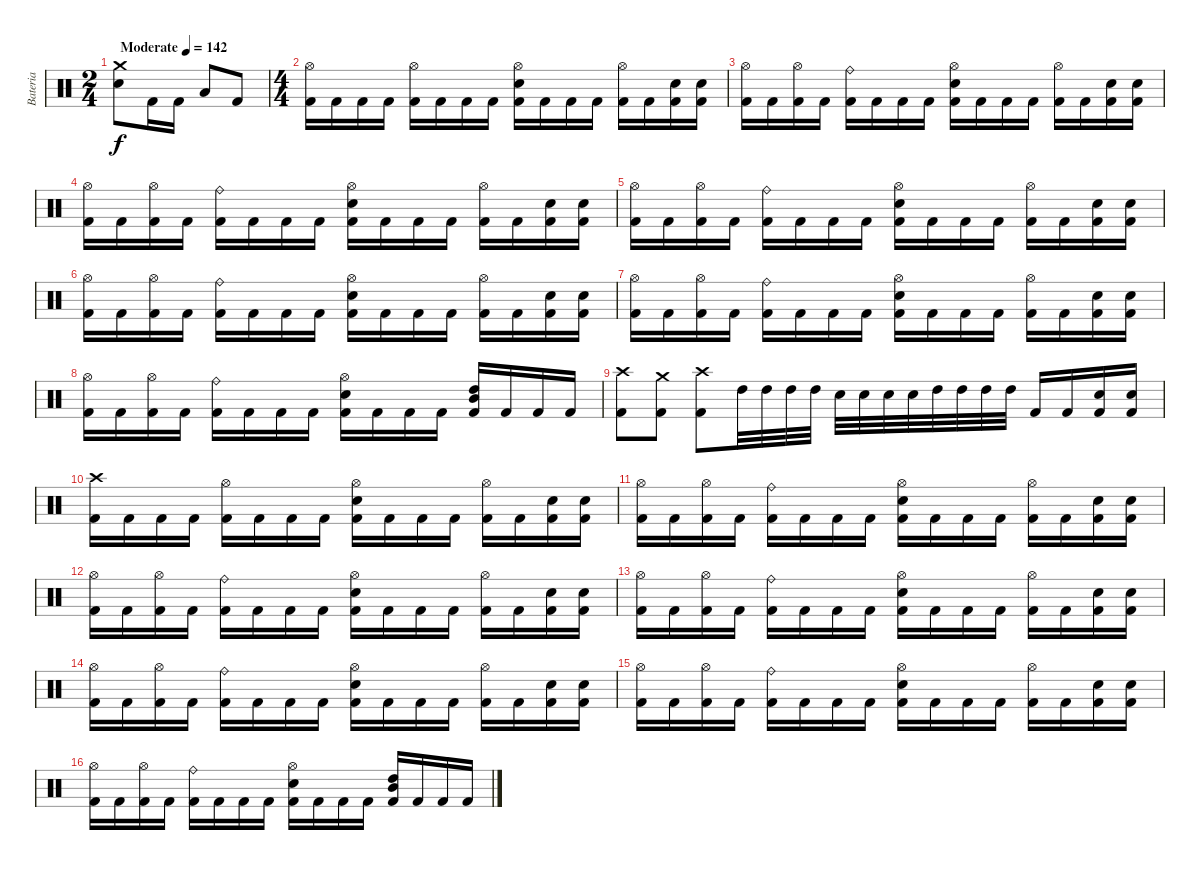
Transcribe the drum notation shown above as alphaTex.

\track ("Bateria" "Bateria") {instrument percussion}
\staff {score}
\articulation defaults
\ts (2 4)
\tempo (142 "Moderate")
\clef neutral
\ks c
("Crash medium (hit)" "Electric Snare (hit)").8{dy f} "Kick (hit) 2".16 "Kick (hit) 2".16 "Low Tom (hit)".8 "Kick (hit) 2".8 |
\ts (4 4)
("Hi-Hat (open)" "Kick (hit) 2").16 "Kick (hit) 2".16 "Kick (hit) 2".16 "Kick (hit) 2".16 ("Hi-Hat (open)" "Kick (hit) 2").16 "Kick (hit) 2".16 "Kick (hit) 2".16 "Kick (hit) 2".16 ("Hi-Hat (open)" "Electric Snare (hit)" "Kick (hit) 2").16 "Kick (hit) 2".16 "Kick (hit) 2".16 "Kick (hit) 2".16 ("Hi-Hat (open)" "Kick (hit) 2").16 "Kick (hit) 2".16 ("Electric Snare (hit)" "Kick (hit) 2").16 ("Electric Snare (hit)" "Kick (hit) 2").16 |
("Hi-Hat (open)" "Kick (hit) 2").16 "Kick (hit) 2".16 ("Hi-Hat (open)" "Kick (hit) 2").16 "Kick (hit) 2".16 ("Ride (bell)" "Kick (hit) 2").16 "Kick (hit) 2".16 "Kick (hit) 2".16 "Kick (hit) 2".16 ("Hi-Hat (open)" "Electric Snare (hit)" "Kick (hit) 2").16 "Kick (hit) 2".16 "Kick (hit) 2".16 "Kick (hit) 2".16 ("Hi-Hat (open)" "Kick (hit) 2").16 "Kick (hit) 2".16 ("Electric Snare (hit)" "Kick (hit) 2").16 ("Electric Snare (hit)" "Kick (hit) 2").16 |
("Hi-Hat (open)" "Kick (hit) 2").16 "Kick (hit) 2".16 ("Hi-Hat (open)" "Kick (hit) 2").16 "Kick (hit) 2".16 ("Ride (bell)" "Kick (hit) 2").16 "Kick (hit) 2".16 "Kick (hit) 2".16 "Kick (hit) 2".16 ("Hi-Hat (open)" "Electric Snare (hit)" "Kick (hit) 2").16 "Kick (hit) 2".16 "Kick (hit) 2".16 "Kick (hit) 2".16 ("Hi-Hat (open)" "Kick (hit) 2").16 "Kick (hit) 2".16 ("Electric Snare (hit)" "Kick (hit) 2").16 ("Electric Snare (hit)" "Kick (hit) 2").16 |
("Hi-Hat (open)" "Kick (hit) 2").16 "Kick (hit) 2".16 ("Hi-Hat (open)" "Kick (hit) 2").16 "Kick (hit) 2".16 ("Ride (bell)" "Kick (hit) 2").16 "Kick (hit) 2".16 "Kick (hit) 2".16 "Kick (hit) 2".16 ("Hi-Hat (open)" "Electric Snare (hit)" "Kick (hit) 2").16 "Kick (hit) 2".16 "Kick (hit) 2".16 "Kick (hit) 2".16 ("Hi-Hat (open)" "Kick (hit) 2").16 "Kick (hit) 2".16 ("Electric Snare (hit)" "Kick (hit) 2").16 ("Electric Snare (hit)" "Kick (hit) 2").16 |
("Hi-Hat (open)" "Kick (hit) 2").16 "Kick (hit) 2".16 ("Hi-Hat (open)" "Kick (hit) 2").16 "Kick (hit) 2".16 ("Ride (bell)" "Kick (hit) 2").16 "Kick (hit) 2".16 "Kick (hit) 2".16 "Kick (hit) 2".16 ("Hi-Hat (open)" "Electric Snare (hit)" "Kick (hit) 2").16 "Kick (hit) 2".16 "Kick (hit) 2".16 "Kick (hit) 2".16 ("Hi-Hat (open)" "Kick (hit) 2").16 "Kick (hit) 2".16 ("Electric Snare (hit)" "Kick (hit) 2").16 ("Electric Snare (hit)" "Kick (hit) 2").16 |
("Hi-Hat (open)" "Kick (hit) 2").16 "Kick (hit) 2".16 ("Hi-Hat (open)" "Kick (hit) 2").16 "Kick (hit) 2".16 ("Ride (bell)" "Kick (hit) 2").16 "Kick (hit) 2".16 "Kick (hit) 2".16 "Kick (hit) 2".16 ("Hi-Hat (open)" "Electric Snare (hit)" "Kick (hit) 2").16 "Kick (hit) 2".16 "Kick (hit) 2".16 "Kick (hit) 2".16 ("Hi-Hat (open)" "Kick (hit) 2").16 "Kick (hit) 2".16 ("Electric Snare (hit)" "Kick (hit) 2").16 ("Electric Snare (hit)" "Kick (hit) 2").16 |
("Hi-Hat (open)" "Kick (hit) 2").16 "Kick (hit) 2".16 ("Hi-Hat (open)" "Kick (hit) 2").16 "Kick (hit) 2".16 ("Ride (bell)" "Kick (hit) 2").16 "Kick (hit) 2".16 "Kick (hit) 2".16 "Kick (hit) 2".16 ("Hi-Hat (open)" "Electric Snare (hit)" "Kick (hit) 2").16 "Kick (hit) 2".16 "Kick (hit) 2".16 "Kick (hit) 2".16 ("High Tom (hit)" "Mid Tom (hit)" "Kick (hit) 2").16 "Kick (hit) 2".16 "Kick (hit) 2".16 "Kick (hit) 2".16 |
("Crash high (hit)" "Kick (hit) 2").8 ("Crash medium (hit)" "Kick (hit) 2").8 ("Crash high (hit)" "Kick (hit) 2").8 "High Tom (hit)".32 "High Tom (hit)".32 "High Tom (hit)".32 "High Tom (hit)".32 "Electric Snare (hit)".32 "Electric Snare (hit)".32 "Electric Snare (hit)".32 "Electric Snare (hit)".32 "High Tom (hit)".32 "High Tom (hit)".32 "High Tom (hit)".32 "High Tom (hit)".32 "Kick (hit) 2".16 "Kick (hit) 2".16 ("Electric Snare (hit)" "Kick (hit) 2").16 ("Electric Snare (hit)" "Kick (hit) 2").16 |
("Crash high (hit)" "Kick (hit) 2").16 "Kick (hit) 2".16 "Kick (hit) 2".16 "Kick (hit) 2".16 ("Hi-Hat (open)" "Kick (hit) 2").16 "Kick (hit) 2".16 "Kick (hit) 2".16 "Kick (hit) 2".16 ("Hi-Hat (open)" "Electric Snare (hit)" "Kick (hit) 2").16 "Kick (hit) 2".16 "Kick (hit) 2".16 "Kick (hit) 2".16 ("Hi-Hat (open)" "Kick (hit) 2").16 "Kick (hit) 2".16 ("Electric Snare (hit)" "Kick (hit) 2").16 ("Electric Snare (hit)" "Kick (hit) 2").16 |
("Hi-Hat (open)" "Kick (hit) 2").16 "Kick (hit) 2".16 ("Hi-Hat (open)" "Kick (hit) 2").16 "Kick (hit) 2".16 ("Ride (bell)" "Kick (hit) 2").16 "Kick (hit) 2".16 "Kick (hit) 2".16 "Kick (hit) 2".16 ("Hi-Hat (open)" "Electric Snare (hit)" "Kick (hit) 2").16 "Kick (hit) 2".16 "Kick (hit) 2".16 "Kick (hit) 2".16 ("Hi-Hat (open)" "Kick (hit) 2").16 "Kick (hit) 2".16 ("Electric Snare (hit)" "Kick (hit) 2").16 ("Electric Snare (hit)" "Kick (hit) 2").16 |
("Hi-Hat (open)" "Kick (hit) 2").16 "Kick (hit) 2".16 ("Hi-Hat (open)" "Kick (hit) 2").16 "Kick (hit) 2".16 ("Ride (bell)" "Kick (hit) 2").16 "Kick (hit) 2".16 "Kick (hit) 2".16 "Kick (hit) 2".16 ("Hi-Hat (open)" "Electric Snare (hit)" "Kick (hit) 2").16 "Kick (hit) 2".16 "Kick (hit) 2".16 "Kick (hit) 2".16 ("Hi-Hat (open)" "Kick (hit) 2").16 "Kick (hit) 2".16 ("Electric Snare (hit)" "Kick (hit) 2").16 ("Electric Snare (hit)" "Kick (hit) 2").16 |
("Hi-Hat (open)" "Kick (hit) 2").16 "Kick (hit) 2".16 ("Hi-Hat (open)" "Kick (hit) 2").16 "Kick (hit) 2".16 ("Ride (bell)" "Kick (hit) 2").16 "Kick (hit) 2".16 "Kick (hit) 2".16 "Kick (hit) 2".16 ("Hi-Hat (open)" "Electric Snare (hit)" "Kick (hit) 2").16 "Kick (hit) 2".16 "Kick (hit) 2".16 "Kick (hit) 2".16 ("Hi-Hat (open)" "Kick (hit) 2").16 "Kick (hit) 2".16 ("Electric Snare (hit)" "Kick (hit) 2").16 ("Electric Snare (hit)" "Kick (hit) 2").16 |
("Hi-Hat (open)" "Kick (hit) 2").16 "Kick (hit) 2".16 ("Hi-Hat (open)" "Kick (hit) 2").16 "Kick (hit) 2".16 ("Ride (bell)" "Kick (hit) 2").16 "Kick (hit) 2".16 "Kick (hit) 2".16 "Kick (hit) 2".16 ("Hi-Hat (open)" "Electric Snare (hit)" "Kick (hit) 2").16 "Kick (hit) 2".16 "Kick (hit) 2".16 "Kick (hit) 2".16 ("Hi-Hat (open)" "Kick (hit) 2").16 "Kick (hit) 2".16 ("Electric Snare (hit)" "Kick (hit) 2").16 ("Electric Snare (hit)" "Kick (hit) 2").16 |
("Hi-Hat (open)" "Kick (hit) 2").16 "Kick (hit) 2".16 ("Hi-Hat (open)" "Kick (hit) 2").16 "Kick (hit) 2".16 ("Ride (bell)" "Kick (hit) 2").16 "Kick (hit) 2".16 "Kick (hit) 2".16 "Kick (hit) 2".16 ("Hi-Hat (open)" "Electric Snare (hit)" "Kick (hit) 2").16 "Kick (hit) 2".16 "Kick (hit) 2".16 "Kick (hit) 2".16 ("Hi-Hat (open)" "Kick (hit) 2").16 "Kick (hit) 2".16 ("Electric Snare (hit)" "Kick (hit) 2").16 ("Electric Snare (hit)" "Kick (hit) 2").16 |
("Hi-Hat (open)" "Kick (hit) 2").16 "Kick (hit) 2".16 ("Hi-Hat (open)" "Kick (hit) 2").16 "Kick (hit) 2".16 ("Ride (bell)" "Kick (hit) 2").16 "Kick (hit) 2".16 "Kick (hit) 2".16 "Kick (hit) 2".16 ("Hi-Hat (open)" "Electric Snare (hit)" "Kick (hit) 2").16 "Kick (hit) 2".16 "Kick (hit) 2".16 "Kick (hit) 2".16 ("High Tom (hit)" "Mid Tom (hit)" "Kick (hit) 2").16 "Kick (hit) 2".16 "Kick (hit) 2".16 "Kick (hit) 2".16
